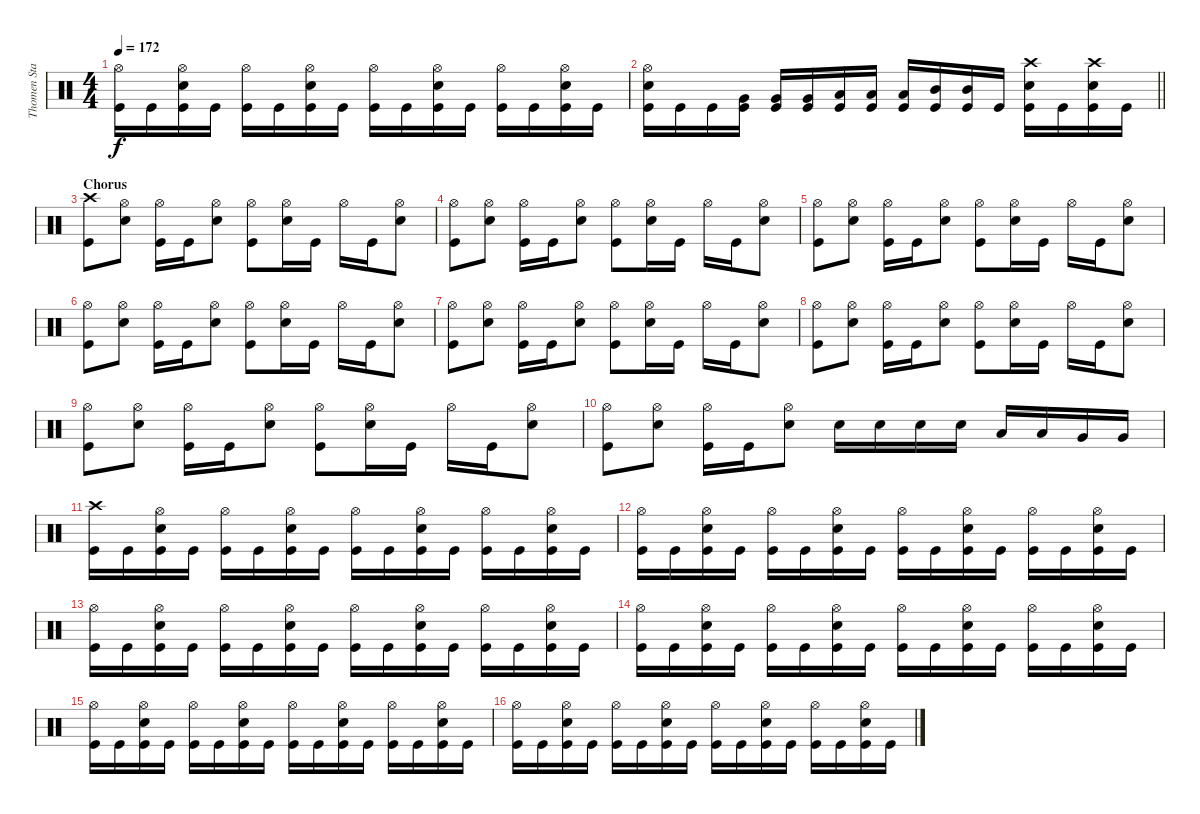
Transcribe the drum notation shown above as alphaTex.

\track ("Thomen Stauch" "Thomen Sta") {instrument percussion}
\staff {score}
\articulation defaults
\ts (4 4)
\tempo 172
\clef neutral
\ks c
("Hi-Hat (open)" "Kick (hit)").16{dy f} "Kick (hit)".16 ("Hi-Hat (open)" "Snare (hit) 2" "Kick (hit)").16 "Kick (hit)".16 ("Hi-Hat (open)" "Kick (hit)").16 "Kick (hit)".16 ("Hi-Hat (open)" "Snare (hit) 2" "Kick (hit)").16 "Kick (hit)".16 ("Hi-Hat (open)" "Kick (hit)").16 "Kick (hit)".16 ("Hi-Hat (open)" "Snare (hit) 2" "Kick (hit)").16 "Kick (hit)".16 ("Hi-Hat (open)" "Kick (hit)").16 "Kick (hit)".16 ("Hi-Hat (open)" "Snare (hit) 2" "Kick (hit)").16 "Kick (hit)".16 |
\barLineRight lightlight
("Hi-Hat (open)" "Snare (hit) 2" "Kick (hit)").16 "Kick (hit)".16 "Kick (hit)".16 ("Very Low Tom (hit)" "Kick (hit)").16 ("Very Low Tom (hit)" "Kick (hit)").16 ("Very Low Tom (hit)" "Kick (hit)").16 ("Low Tom (hit)" "Kick (hit)").16 ("Low Tom (hit)" "Kick (hit)").16 ("Low Tom (hit)" "Kick (hit)").16 ("Mid Tom (hit)" "Kick (hit)").16 ("Mid Tom (hit)" "Kick (hit)").16 "Kick (hit)".16 ("Crash high (hit)" "Snare (hit) 2" "Kick (hit)").16 "Kick (hit)".16 ("Crash high (hit)" "Snare (hit) 2" "Kick (hit)").16 "Kick (hit)".16 |
\section ("" "Chorus")
("Crash high (hit)" "Kick (hit)").8 ("Hi-Hat (open)" "Snare (hit) 2").8 ("Hi-Hat (open)" "Kick (hit)").16 "Kick (hit)".16 ("Hi-Hat (open)" "Snare (hit) 2").8 ("Hi-Hat (open)" "Kick (hit)").8 ("Hi-Hat (open)" "Snare (hit) 2").16 "Kick (hit)".16 "Hi-Hat (open)".16 "Kick (hit)".16 ("Hi-Hat (open)" "Snare (hit) 2").8 |
("Hi-Hat (open)" "Kick (hit)").8 ("Hi-Hat (open)" "Snare (hit) 2").8 ("Hi-Hat (open)" "Kick (hit)").16 "Kick (hit)".16 ("Hi-Hat (open)" "Snare (hit) 2").8 ("Hi-Hat (open)" "Kick (hit)").8 ("Hi-Hat (open)" "Snare (hit) 2").16 "Kick (hit)".16 "Hi-Hat (open)".16 "Kick (hit)".16 ("Hi-Hat (open)" "Snare (hit) 2").8 |
("Hi-Hat (open)" "Kick (hit)").8 ("Hi-Hat (open)" "Snare (hit) 2").8 ("Hi-Hat (open)" "Kick (hit)").16 "Kick (hit)".16 ("Hi-Hat (open)" "Snare (hit) 2").8 ("Hi-Hat (open)" "Kick (hit)").8 ("Hi-Hat (open)" "Snare (hit) 2").16 "Kick (hit)".16 "Hi-Hat (open)".16 "Kick (hit)".16 ("Hi-Hat (open)" "Snare (hit) 2").8 |
("Hi-Hat (open)" "Kick (hit)").8 ("Hi-Hat (open)" "Snare (hit) 2").8 ("Hi-Hat (open)" "Kick (hit)").16 "Kick (hit)".16 ("Hi-Hat (open)" "Snare (hit) 2").8 ("Hi-Hat (open)" "Kick (hit)").8 ("Hi-Hat (open)" "Snare (hit) 2").16 "Kick (hit)".16 "Hi-Hat (open)".16 "Kick (hit)".16 ("Hi-Hat (open)" "Snare (hit) 2").8 |
("Hi-Hat (open)" "Kick (hit)").8 ("Hi-Hat (open)" "Snare (hit) 2").8 ("Hi-Hat (open)" "Kick (hit)").16 "Kick (hit)".16 ("Hi-Hat (open)" "Snare (hit) 2").8 ("Hi-Hat (open)" "Kick (hit)").8 ("Hi-Hat (open)" "Snare (hit) 2").16 "Kick (hit)".16 "Hi-Hat (open)".16 "Kick (hit)".16 ("Hi-Hat (open)" "Snare (hit) 2").8 |
("Hi-Hat (open)" "Kick (hit)").8 ("Hi-Hat (open)" "Snare (hit) 2").8 ("Hi-Hat (open)" "Kick (hit)").16 "Kick (hit)".16 ("Hi-Hat (open)" "Snare (hit) 2").8 ("Hi-Hat (open)" "Kick (hit)").8 ("Hi-Hat (open)" "Snare (hit) 2").16 "Kick (hit)".16 "Hi-Hat (open)".16 "Kick (hit)".16 ("Hi-Hat (open)" "Snare (hit) 2").8 |
("Hi-Hat (open)" "Kick (hit)").8 ("Hi-Hat (open)" "Snare (hit) 2").8 ("Hi-Hat (open)" "Kick (hit)").16 "Kick (hit)".16 ("Hi-Hat (open)" "Snare (hit) 2").8 ("Hi-Hat (open)" "Kick (hit)").8 ("Hi-Hat (open)" "Snare (hit) 2").16 "Kick (hit)".16 "Hi-Hat (open)".16 "Kick (hit)".16 ("Hi-Hat (open)" "Snare (hit) 2").8 |
("Hi-Hat (open)" "Kick (hit)").8 ("Hi-Hat (open)" "Snare (hit) 2").8 ("Hi-Hat (open)" "Kick (hit)").16 "Kick (hit)".16 ("Hi-Hat (open)" "Snare (hit) 2").8 "Snare (hit) 2".16 "Snare (hit) 2".16 "Snare (hit) 2".16 "Snare (hit) 2".16 "Low Tom (hit)".16 "Low Tom (hit)".16 "Very Low Tom (hit)".16 "Very Low Tom (hit)".16 |
("Crash high (hit)" "Kick (hit)").16 "Kick (hit)".16 ("Hi-Hat (open)" "Snare (hit) 2" "Kick (hit)").16 "Kick (hit)".16 ("Hi-Hat (open)" "Kick (hit)").16 "Kick (hit)".16 ("Hi-Hat (open)" "Snare (hit) 2" "Kick (hit)").16 "Kick (hit)".16 ("Hi-Hat (open)" "Kick (hit)").16 "Kick (hit)".16 ("Hi-Hat (open)" "Snare (hit) 2" "Kick (hit)").16 "Kick (hit)".16 ("Hi-Hat (open)" "Kick (hit)").16 "Kick (hit)".16 ("Hi-Hat (open)" "Snare (hit) 2" "Kick (hit)").16 "Kick (hit)".16 |
("Hi-Hat (open)" "Kick (hit)").16 "Kick (hit)".16 ("Hi-Hat (open)" "Snare (hit) 2" "Kick (hit)").16 "Kick (hit)".16 ("Hi-Hat (open)" "Kick (hit)").16 "Kick (hit)".16 ("Hi-Hat (open)" "Snare (hit) 2" "Kick (hit)").16 "Kick (hit)".16 ("Hi-Hat (open)" "Kick (hit)").16 "Kick (hit)".16 ("Hi-Hat (open)" "Snare (hit) 2" "Kick (hit)").16 "Kick (hit)".16 ("Hi-Hat (open)" "Kick (hit)").16 "Kick (hit)".16 ("Hi-Hat (open)" "Snare (hit) 2" "Kick (hit)").16 "Kick (hit)".16 |
("Hi-Hat (open)" "Kick (hit)").16 "Kick (hit)".16 ("Hi-Hat (open)" "Snare (hit) 2" "Kick (hit)").16 "Kick (hit)".16 ("Hi-Hat (open)" "Kick (hit)").16 "Kick (hit)".16 ("Hi-Hat (open)" "Snare (hit) 2" "Kick (hit)").16 "Kick (hit)".16 ("Hi-Hat (open)" "Kick (hit)").16 "Kick (hit)".16 ("Hi-Hat (open)" "Snare (hit) 2" "Kick (hit)").16 "Kick (hit)".16 ("Hi-Hat (open)" "Kick (hit)").16 "Kick (hit)".16 ("Hi-Hat (open)" "Snare (hit) 2" "Kick (hit)").16 "Kick (hit)".16 |
("Hi-Hat (open)" "Kick (hit)").16 "Kick (hit)".16 ("Hi-Hat (open)" "Snare (hit) 2" "Kick (hit)").16 "Kick (hit)".16 ("Hi-Hat (open)" "Kick (hit)").16 "Kick (hit)".16 ("Hi-Hat (open)" "Snare (hit) 2" "Kick (hit)").16 "Kick (hit)".16 ("Hi-Hat (open)" "Kick (hit)").16 "Kick (hit)".16 ("Hi-Hat (open)" "Snare (hit) 2" "Kick (hit)").16 "Kick (hit)".16 ("Hi-Hat (open)" "Kick (hit)").16 "Kick (hit)".16 ("Hi-Hat (open)" "Snare (hit) 2" "Kick (hit)").16 "Kick (hit)".16 |
("Hi-Hat (open)" "Kick (hit)").16 "Kick (hit)".16 ("Hi-Hat (open)" "Snare (hit) 2" "Kick (hit)").16 "Kick (hit)".16 ("Hi-Hat (open)" "Kick (hit)").16 "Kick (hit)".16 ("Hi-Hat (open)" "Snare (hit) 2" "Kick (hit)").16 "Kick (hit)".16 ("Hi-Hat (open)" "Kick (hit)").16 "Kick (hit)".16 ("Hi-Hat (open)" "Snare (hit) 2" "Kick (hit)").16 "Kick (hit)".16 ("Hi-Hat (open)" "Kick (hit)").16 "Kick (hit)".16 ("Hi-Hat (open)" "Snare (hit) 2" "Kick (hit)").16 "Kick (hit)".16 |
("Hi-Hat (open)" "Kick (hit)").16 "Kick (hit)".16 ("Hi-Hat (open)" "Snare (hit) 2" "Kick (hit)").16 "Kick (hit)".16 ("Hi-Hat (open)" "Kick (hit)").16 "Kick (hit)".16 ("Hi-Hat (open)" "Snare (hit) 2" "Kick (hit)").16 "Kick (hit)".16 ("Hi-Hat (open)" "Kick (hit)").16 "Kick (hit)".16 ("Hi-Hat (open)" "Snare (hit) 2" "Kick (hit)").16 "Kick (hit)".16 ("Hi-Hat (open)" "Kick (hit)").16 "Kick (hit)".16 ("Hi-Hat (open)" "Snare (hit) 2" "Kick (hit)").16 "Kick (hit)".16
